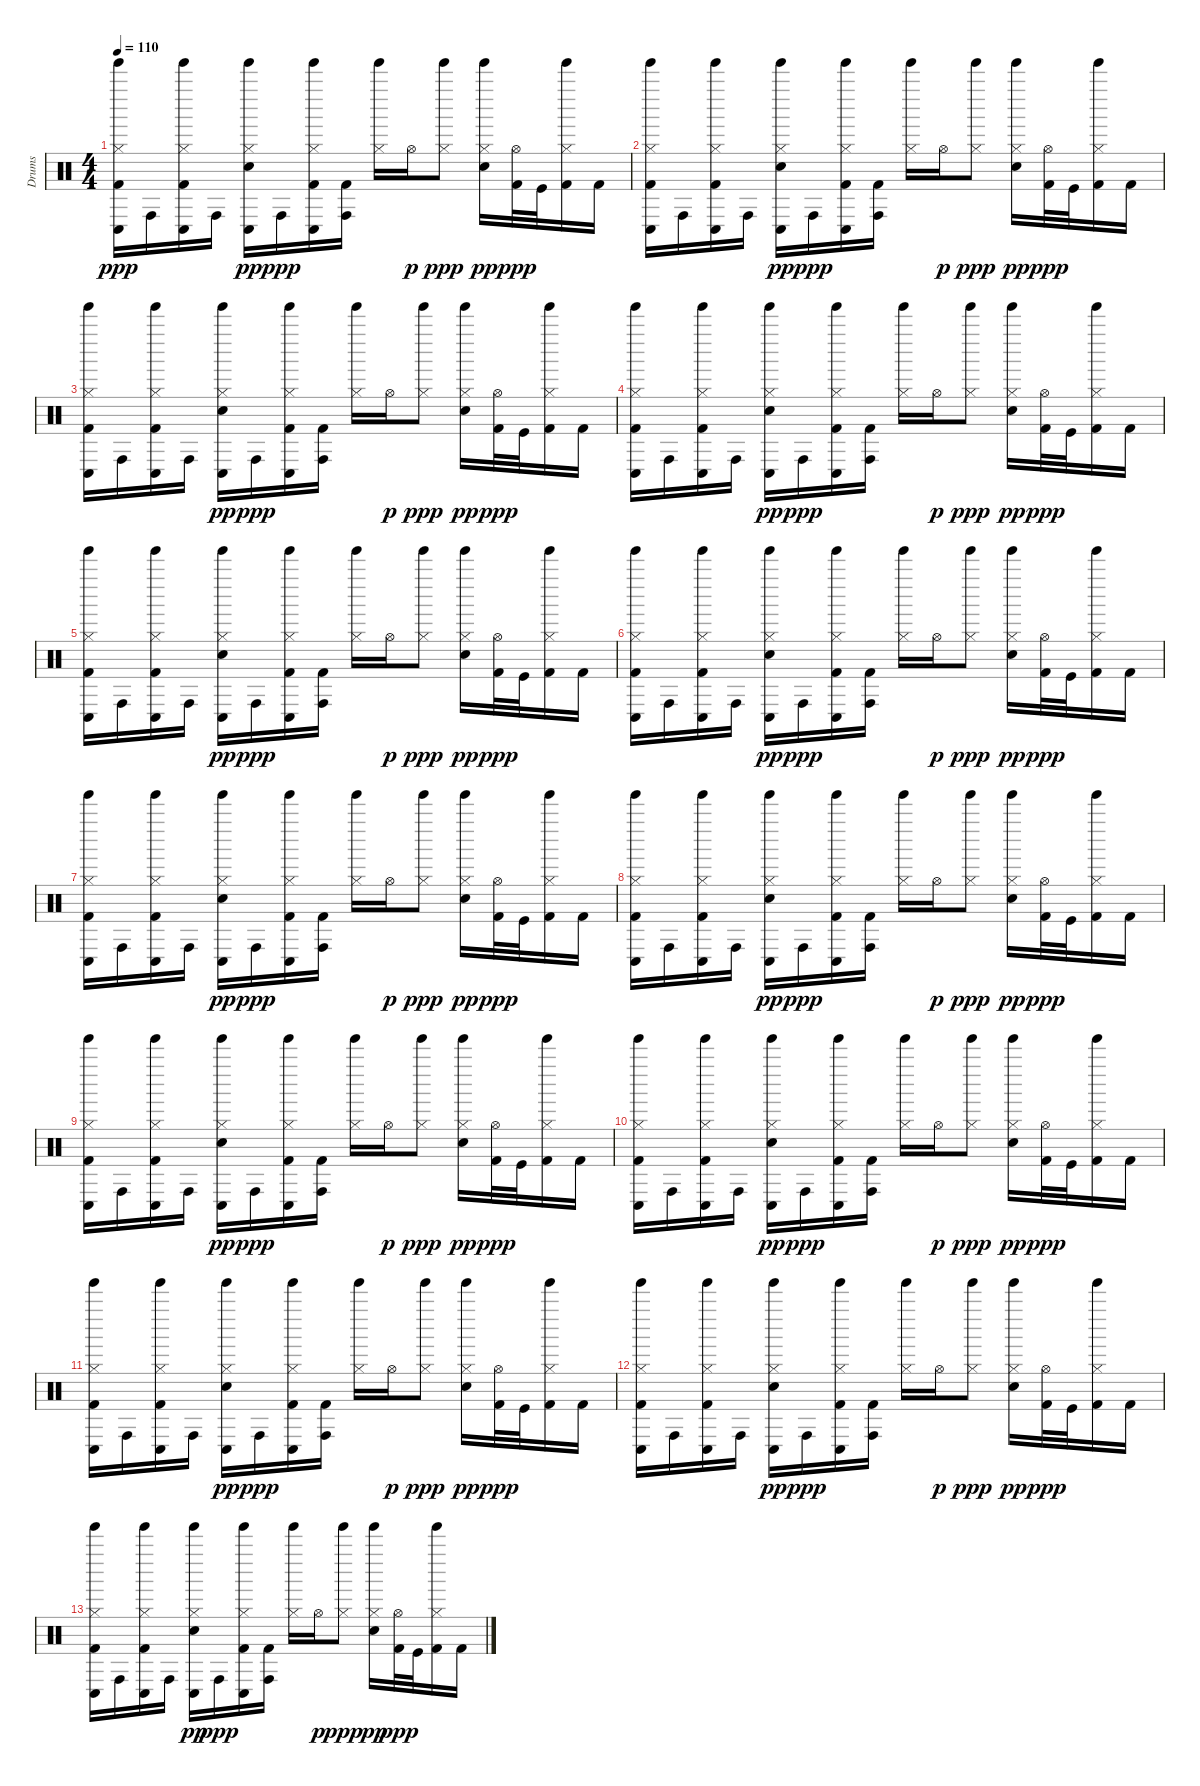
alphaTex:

\track ("Drums" "Drums") {instrument percussion}
\staff {score}
\articulation defaults
\ts (4 4)
\tempo 110
\clef neutral
\ks c
("Tinkle Bell (hit)" "Conga low (hit)" "Hi-Hat (closed)" "Kick (hit) 2").16{dy ppp} "Conga high (hit)".16 ("Tinkle Bell (hit)" "Conga low (hit)" "Hi-Hat (closed)" "Kick (hit) 2").16 "Conga high (hit)".16 ("Tinkle Bell (hit)" "Conga low (hit)" "Hi-Hat (closed)" "Snare (hit) 2").16{dy pp} "Conga high (hit)".16{dy ppp} ("Tinkle Bell (hit)" "Conga low (hit)" "Hi-Hat (closed)" "Kick (hit) 2").16 ("Conga high (hit)" "Kick (hit) 2").16 ("Tinkle Bell (hit)" "Hi-Hat (closed)").16 "Hi-Hat (open)".16{dy p} ("Tinkle Bell (hit)" "Hi-Hat (closed)").8{dy ppp} ("Tinkle Bell (hit)" "Hi-Hat (closed)" "Snare (hit) 2").16{dy pp} ("Hi-Hat (open)" "Kick (hit) 2").32{dy ppp} "Kick (hit)".32 ("Tinkle Bell (hit)" "Hi-Hat (closed)" "Kick (hit) 2").16 "Kick (hit) 2".16 |
("Tinkle Bell (hit)" "Conga low (hit)" "Hi-Hat (closed)" "Kick (hit) 2").16{volume 9} "Conga high (hit)".16 ("Tinkle Bell (hit)" "Conga low (hit)" "Hi-Hat (closed)" "Kick (hit) 2").16 "Conga high (hit)".16 ("Tinkle Bell (hit)" "Conga low (hit)" "Hi-Hat (closed)" "Snare (hit) 2").16{dy pp} "Conga high (hit)".16{dy ppp} ("Tinkle Bell (hit)" "Conga low (hit)" "Hi-Hat (closed)" "Kick (hit) 2").16 ("Conga high (hit)" "Kick (hit) 2").16 ("Tinkle Bell (hit)" "Hi-Hat (closed)").16 "Hi-Hat (open)".16{dy p} ("Tinkle Bell (hit)" "Hi-Hat (closed)").8{dy ppp} ("Tinkle Bell (hit)" "Hi-Hat (closed)" "Snare (hit) 2").16{dy pp} ("Hi-Hat (open)" "Kick (hit) 2").32{dy ppp} "Kick (hit)".32 ("Tinkle Bell (hit)" "Hi-Hat (closed)" "Kick (hit) 2").16 "Kick (hit) 2".16 |
("Tinkle Bell (hit)" "Conga low (hit)" "Hi-Hat (closed)" "Kick (hit) 2").16 "Conga high (hit)".16 ("Tinkle Bell (hit)" "Conga low (hit)" "Hi-Hat (closed)" "Kick (hit) 2").16 "Conga high (hit)".16 ("Tinkle Bell (hit)" "Conga low (hit)" "Hi-Hat (closed)" "Snare (hit) 2").16{dy pp} "Conga high (hit)".16{dy ppp} ("Tinkle Bell (hit)" "Conga low (hit)" "Hi-Hat (closed)" "Kick (hit) 2").16 ("Conga high (hit)" "Kick (hit) 2").16 ("Tinkle Bell (hit)" "Hi-Hat (closed)").16 "Hi-Hat (open)".16{dy p} ("Tinkle Bell (hit)" "Hi-Hat (closed)").8{dy ppp} ("Tinkle Bell (hit)" "Hi-Hat (closed)" "Snare (hit) 2").16{dy pp} ("Hi-Hat (open)" "Kick (hit) 2").32{dy ppp} "Kick (hit)".32 ("Tinkle Bell (hit)" "Hi-Hat (closed)" "Kick (hit) 2").16 "Kick (hit) 2".16 |
("Tinkle Bell (hit)" "Conga low (hit)" "Hi-Hat (closed)" "Kick (hit) 2").16 "Conga high (hit)".16 ("Tinkle Bell (hit)" "Conga low (hit)" "Hi-Hat (closed)" "Kick (hit) 2").16 "Conga high (hit)".16 ("Tinkle Bell (hit)" "Conga low (hit)" "Hi-Hat (closed)" "Snare (hit) 2").16{dy pp} "Conga high (hit)".16{dy ppp} ("Tinkle Bell (hit)" "Conga low (hit)" "Hi-Hat (closed)" "Kick (hit) 2").16 ("Conga high (hit)" "Kick (hit) 2").16 ("Tinkle Bell (hit)" "Hi-Hat (closed)").16 "Hi-Hat (open)".16{dy p} ("Tinkle Bell (hit)" "Hi-Hat (closed)").8{dy ppp} ("Tinkle Bell (hit)" "Hi-Hat (closed)" "Snare (hit) 2").16{dy pp} ("Hi-Hat (open)" "Kick (hit) 2").32{dy ppp} "Kick (hit)".32 ("Tinkle Bell (hit)" "Hi-Hat (closed)" "Kick (hit) 2").16 "Kick (hit) 2".16 |
("Tinkle Bell (hit)" "Conga low (hit)" "Hi-Hat (closed)" "Kick (hit) 2").16 "Conga high (hit)".16 ("Tinkle Bell (hit)" "Conga low (hit)" "Hi-Hat (closed)" "Kick (hit) 2").16 "Conga high (hit)".16 ("Tinkle Bell (hit)" "Conga low (hit)" "Hi-Hat (closed)" "Snare (hit) 2").16{dy pp} "Conga high (hit)".16{dy ppp} ("Tinkle Bell (hit)" "Conga low (hit)" "Hi-Hat (closed)" "Kick (hit) 2").16 ("Conga high (hit)" "Kick (hit) 2").16 ("Tinkle Bell (hit)" "Hi-Hat (closed)").16 "Hi-Hat (open)".16{dy p} ("Tinkle Bell (hit)" "Hi-Hat (closed)").8{dy ppp} ("Tinkle Bell (hit)" "Hi-Hat (closed)" "Snare (hit) 2").16{dy pp} ("Hi-Hat (open)" "Kick (hit) 2").32{dy ppp} "Kick (hit)".32 ("Tinkle Bell (hit)" "Hi-Hat (closed)" "Kick (hit) 2").16 "Kick (hit) 2".16 |
("Tinkle Bell (hit)" "Conga low (hit)" "Hi-Hat (closed)" "Kick (hit) 2").16{volume 4} "Conga high (hit)".16 ("Tinkle Bell (hit)" "Conga low (hit)" "Hi-Hat (closed)" "Kick (hit) 2").16 "Conga high (hit)".16 ("Tinkle Bell (hit)" "Conga low (hit)" "Hi-Hat (closed)" "Snare (hit) 2").16{dy pp} "Conga high (hit)".16{dy ppp} ("Tinkle Bell (hit)" "Conga low (hit)" "Hi-Hat (closed)" "Kick (hit) 2").16 ("Conga high (hit)" "Kick (hit) 2").16 ("Tinkle Bell (hit)" "Hi-Hat (closed)").16 "Hi-Hat (open)".16{dy p} ("Tinkle Bell (hit)" "Hi-Hat (closed)").8{dy ppp} ("Tinkle Bell (hit)" "Hi-Hat (closed)" "Snare (hit) 2").16{dy pp} ("Hi-Hat (open)" "Kick (hit) 2").32{dy ppp} "Kick (hit)".32 ("Tinkle Bell (hit)" "Hi-Hat (closed)" "Kick (hit) 2").16 "Kick (hit) 2".16 |
("Tinkle Bell (hit)" "Conga low (hit)" "Hi-Hat (closed)" "Kick (hit) 2").16 "Conga high (hit)".16 ("Tinkle Bell (hit)" "Conga low (hit)" "Hi-Hat (closed)" "Kick (hit) 2").16 "Conga high (hit)".16 ("Tinkle Bell (hit)" "Conga low (hit)" "Hi-Hat (closed)" "Snare (hit) 2").16{dy pp} "Conga high (hit)".16{dy ppp} ("Tinkle Bell (hit)" "Conga low (hit)" "Hi-Hat (closed)" "Kick (hit) 2").16 ("Conga high (hit)" "Kick (hit) 2").16 ("Tinkle Bell (hit)" "Hi-Hat (closed)").16 "Hi-Hat (open)".16{dy p} ("Tinkle Bell (hit)" "Hi-Hat (closed)").8{dy ppp} ("Tinkle Bell (hit)" "Hi-Hat (closed)" "Snare (hit) 2").16{dy pp} ("Hi-Hat (open)" "Kick (hit) 2").32{dy ppp} "Kick (hit)".32 ("Tinkle Bell (hit)" "Hi-Hat (closed)" "Kick (hit) 2").16 "Kick (hit) 2".16 |
("Tinkle Bell (hit)" "Conga low (hit)" "Hi-Hat (closed)" "Kick (hit) 2").16 "Conga high (hit)".16 ("Tinkle Bell (hit)" "Conga low (hit)" "Hi-Hat (closed)" "Kick (hit) 2").16 "Conga high (hit)".16 ("Tinkle Bell (hit)" "Conga low (hit)" "Hi-Hat (closed)" "Snare (hit) 2").16{dy pp} "Conga high (hit)".16{dy ppp} ("Tinkle Bell (hit)" "Conga low (hit)" "Hi-Hat (closed)" "Kick (hit) 2").16 ("Conga high (hit)" "Kick (hit) 2").16 ("Tinkle Bell (hit)" "Hi-Hat (closed)").16 "Hi-Hat (open)".16{dy p} ("Tinkle Bell (hit)" "Hi-Hat (closed)").8{dy ppp} ("Tinkle Bell (hit)" "Hi-Hat (closed)" "Snare (hit) 2").16{dy pp} ("Hi-Hat (open)" "Kick (hit) 2").32{dy ppp} "Kick (hit)".32 ("Tinkle Bell (hit)" "Hi-Hat (closed)" "Kick (hit) 2").16 "Kick (hit) 2".16 |
("Tinkle Bell (hit)" "Conga low (hit)" "Hi-Hat (closed)" "Kick (hit) 2").16 "Conga high (hit)".16 ("Tinkle Bell (hit)" "Conga low (hit)" "Hi-Hat (closed)" "Kick (hit) 2").16 "Conga high (hit)".16 ("Tinkle Bell (hit)" "Conga low (hit)" "Hi-Hat (closed)" "Snare (hit) 2").16{dy pp} "Conga high (hit)".16{dy ppp} ("Tinkle Bell (hit)" "Conga low (hit)" "Hi-Hat (closed)" "Kick (hit) 2").16 ("Conga high (hit)" "Kick (hit) 2").16 ("Tinkle Bell (hit)" "Hi-Hat (closed)").16 "Hi-Hat (open)".16{dy p} ("Tinkle Bell (hit)" "Hi-Hat (closed)").8{dy ppp} ("Tinkle Bell (hit)" "Hi-Hat (closed)" "Snare (hit) 2").16{dy pp} ("Hi-Hat (open)" "Kick (hit) 2").32{dy ppp} "Kick (hit)".32 ("Tinkle Bell (hit)" "Hi-Hat (closed)" "Kick (hit) 2").16 "Kick (hit) 2".16 |
("Tinkle Bell (hit)" "Conga low (hit)" "Hi-Hat (closed)" "Kick (hit) 2").16{volume 0} "Conga high (hit)".16 ("Tinkle Bell (hit)" "Conga low (hit)" "Hi-Hat (closed)" "Kick (hit) 2").16 "Conga high (hit)".16 ("Tinkle Bell (hit)" "Conga low (hit)" "Hi-Hat (closed)" "Snare (hit) 2").16{dy pp} "Conga high (hit)".16{dy ppp} ("Tinkle Bell (hit)" "Conga low (hit)" "Hi-Hat (closed)" "Kick (hit) 2").16 ("Conga high (hit)" "Kick (hit) 2").16 ("Tinkle Bell (hit)" "Hi-Hat (closed)").16 "Hi-Hat (open)".16{dy p} ("Tinkle Bell (hit)" "Hi-Hat (closed)").8{dy ppp} ("Tinkle Bell (hit)" "Hi-Hat (closed)" "Snare (hit) 2").16{dy pp} ("Hi-Hat (open)" "Kick (hit) 2").32{dy ppp} "Kick (hit)".32 ("Tinkle Bell (hit)" "Hi-Hat (closed)" "Kick (hit) 2").16 "Kick (hit) 2".16 |
("Tinkle Bell (hit)" "Conga low (hit)" "Hi-Hat (closed)" "Kick (hit) 2").16 "Conga high (hit)".16 ("Tinkle Bell (hit)" "Conga low (hit)" "Hi-Hat (closed)" "Kick (hit) 2").16 "Conga high (hit)".16 ("Tinkle Bell (hit)" "Conga low (hit)" "Hi-Hat (closed)" "Snare (hit) 2").16{dy pp} "Conga high (hit)".16{dy ppp} ("Tinkle Bell (hit)" "Conga low (hit)" "Hi-Hat (closed)" "Kick (hit) 2").16 ("Conga high (hit)" "Kick (hit) 2").16 ("Tinkle Bell (hit)" "Hi-Hat (closed)").16 "Hi-Hat (open)".16{dy p} ("Tinkle Bell (hit)" "Hi-Hat (closed)").8{dy ppp} ("Tinkle Bell (hit)" "Hi-Hat (closed)" "Snare (hit) 2").16{dy pp} ("Hi-Hat (open)" "Kick (hit) 2").32{dy ppp} "Kick (hit)".32 ("Tinkle Bell (hit)" "Hi-Hat (closed)" "Kick (hit) 2").16 "Kick (hit) 2".16 |
("Tinkle Bell (hit)" "Conga low (hit)" "Hi-Hat (closed)" "Kick (hit) 2").16 "Conga high (hit)".16 ("Tinkle Bell (hit)" "Conga low (hit)" "Hi-Hat (closed)" "Kick (hit) 2").16 "Conga high (hit)".16 ("Tinkle Bell (hit)" "Conga low (hit)" "Hi-Hat (closed)" "Snare (hit) 2").16{dy pp} "Conga high (hit)".16{dy ppp} ("Tinkle Bell (hit)" "Conga low (hit)" "Hi-Hat (closed)" "Kick (hit) 2").16 ("Conga high (hit)" "Kick (hit) 2").16 ("Tinkle Bell (hit)" "Hi-Hat (closed)").16 "Hi-Hat (open)".16{dy p} ("Tinkle Bell (hit)" "Hi-Hat (closed)").8{dy ppp} ("Tinkle Bell (hit)" "Hi-Hat (closed)" "Snare (hit) 2").16{dy pp} ("Hi-Hat (open)" "Kick (hit) 2").32{dy ppp} "Kick (hit)".32 ("Tinkle Bell (hit)" "Hi-Hat (closed)" "Kick (hit) 2").16 "Kick (hit) 2".16 |
("Tinkle Bell (hit)" "Conga low (hit)" "Hi-Hat (closed)" "Kick (hit) 2").16 "Conga high (hit)".16 ("Tinkle Bell (hit)" "Conga low (hit)" "Hi-Hat (closed)" "Kick (hit) 2").16 "Conga high (hit)".16 ("Tinkle Bell (hit)" "Conga low (hit)" "Hi-Hat (closed)" "Snare (hit) 2").16{dy pp} "Conga high (hit)".16{dy ppp} ("Tinkle Bell (hit)" "Conga low (hit)" "Hi-Hat (closed)" "Kick (hit) 2").16 ("Conga high (hit)" "Kick (hit) 2").16 ("Tinkle Bell (hit)" "Hi-Hat (closed)").16 "Hi-Hat (open)".16{dy p} ("Tinkle Bell (hit)" "Hi-Hat (closed)").8{dy ppp} ("Tinkle Bell (hit)" "Hi-Hat (closed)" "Snare (hit) 2").16{dy pp} ("Hi-Hat (open)" "Kick (hit) 2").32{dy ppp} "Kick (hit)".32 ("Tinkle Bell (hit)" "Hi-Hat (closed)" "Kick (hit) 2").16 "Kick (hit) 2".16
